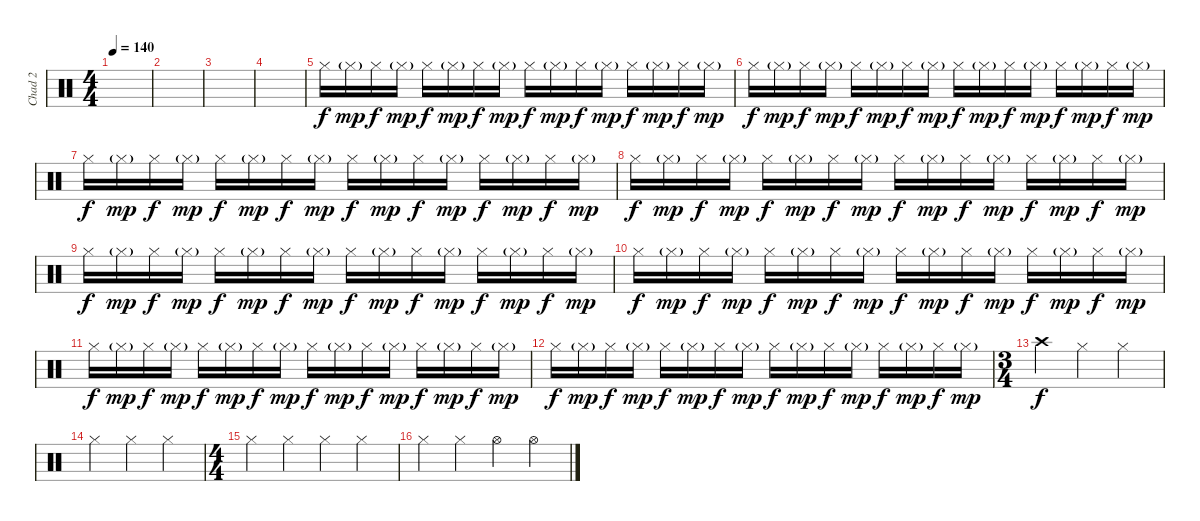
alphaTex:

\track ("Chad 2" "Chad 2") {instrument percussion}
\staff {score}
\articulation defaults
\ts (4 4)
\tempo 140
\clef neutral
\ks c
|
|
|
|
"Hi-Hat (closed)".16 "Hi-Hat (closed)"{g}.16{dy mp} "Hi-Hat (closed)".16{dy f} "Hi-Hat (closed)"{g}.16{dy mp} "Hi-Hat (closed)".16{dy f} "Hi-Hat (closed)"{g}.16{dy mp} "Hi-Hat (closed)".16{dy f} "Hi-Hat (closed)"{g}.16{dy mp} "Hi-Hat (closed)".16{dy f} "Hi-Hat (closed)"{g}.16{dy mp} "Hi-Hat (closed)".16{dy f} "Hi-Hat (closed)"{g}.16{dy mp} "Hi-Hat (closed)".16{dy f} "Hi-Hat (closed)"{g}.16{dy mp} "Hi-Hat (closed)".16{dy f} "Hi-Hat (closed)"{g}.16{dy mp} |
"Hi-Hat (closed)".16{dy f} "Hi-Hat (closed)"{g}.16{dy mp} "Hi-Hat (closed)".16{dy f} "Hi-Hat (closed)"{g}.16{dy mp} "Hi-Hat (closed)".16{dy f} "Hi-Hat (closed)"{g}.16{dy mp} "Hi-Hat (closed)".16{dy f} "Hi-Hat (closed)"{g}.16{dy mp} "Hi-Hat (closed)".16{dy f} "Hi-Hat (closed)"{g}.16{dy mp} "Hi-Hat (closed)".16{dy f} "Hi-Hat (closed)"{g}.16{dy mp} "Hi-Hat (closed)".16{dy f} "Hi-Hat (closed)"{g}.16{dy mp} "Hi-Hat (closed)".16{dy f} "Hi-Hat (closed)"{g}.16{dy mp} |
"Hi-Hat (closed)".16{dy f} "Hi-Hat (closed)"{g}.16{dy mp} "Hi-Hat (closed)".16{dy f} "Hi-Hat (closed)"{g}.16{dy mp} "Hi-Hat (closed)".16{dy f} "Hi-Hat (closed)"{g}.16{dy mp} "Hi-Hat (closed)".16{dy f} "Hi-Hat (closed)"{g}.16{dy mp} "Hi-Hat (closed)".16{dy f} "Hi-Hat (closed)"{g}.16{dy mp} "Hi-Hat (closed)".16{dy f} "Hi-Hat (closed)"{g}.16{dy mp} "Hi-Hat (closed)".16{dy f} "Hi-Hat (closed)"{g}.16{dy mp} "Hi-Hat (closed)".16{dy f} "Hi-Hat (closed)"{g}.16{dy mp} |
"Hi-Hat (closed)".16{dy f} "Hi-Hat (closed)"{g}.16{dy mp} "Hi-Hat (closed)".16{dy f} "Hi-Hat (closed)"{g}.16{dy mp} "Hi-Hat (closed)".16{dy f} "Hi-Hat (closed)"{g}.16{dy mp} "Hi-Hat (closed)".16{dy f} "Hi-Hat (closed)"{g}.16{dy mp} "Hi-Hat (closed)".16{dy f} "Hi-Hat (closed)"{g}.16{dy mp} "Hi-Hat (closed)".16{dy f} "Hi-Hat (closed)"{g}.16{dy mp} "Hi-Hat (closed)".16{dy f} "Hi-Hat (closed)"{g}.16{dy mp} "Hi-Hat (closed)".16{dy f} "Hi-Hat (closed)"{g}.16{dy mp} |
"Hi-Hat (closed)".16{dy f} "Hi-Hat (closed)"{g}.16{dy mp} "Hi-Hat (closed)".16{dy f} "Hi-Hat (closed)"{g}.16{dy mp} "Hi-Hat (closed)".16{dy f} "Hi-Hat (closed)"{g}.16{dy mp} "Hi-Hat (closed)".16{dy f} "Hi-Hat (closed)"{g}.16{dy mp} "Hi-Hat (closed)".16{dy f} "Hi-Hat (closed)"{g}.16{dy mp} "Hi-Hat (closed)".16{dy f} "Hi-Hat (closed)"{g}.16{dy mp} "Hi-Hat (closed)".16{dy f} "Hi-Hat (closed)"{g}.16{dy mp} "Hi-Hat (closed)".16{dy f} "Hi-Hat (closed)"{g}.16{dy mp} |
"Hi-Hat (closed)".16{dy f} "Hi-Hat (closed)"{g}.16{dy mp} "Hi-Hat (closed)".16{dy f} "Hi-Hat (closed)"{g}.16{dy mp} "Hi-Hat (closed)".16{dy f} "Hi-Hat (closed)"{g}.16{dy mp} "Hi-Hat (closed)".16{dy f} "Hi-Hat (closed)"{g}.16{dy mp} "Hi-Hat (closed)".16{dy f} "Hi-Hat (closed)"{g}.16{dy mp} "Hi-Hat (closed)".16{dy f} "Hi-Hat (closed)"{g}.16{dy mp} "Hi-Hat (closed)".16{dy f} "Hi-Hat (closed)"{g}.16{dy mp} "Hi-Hat (closed)".16{dy f} "Hi-Hat (closed)"{g}.16{dy mp} |
"Hi-Hat (closed)".16{dy f} "Hi-Hat (closed)"{g}.16{dy mp} "Hi-Hat (closed)".16{dy f} "Hi-Hat (closed)"{g}.16{dy mp} "Hi-Hat (closed)".16{dy f} "Hi-Hat (closed)"{g}.16{dy mp} "Hi-Hat (closed)".16{dy f} "Hi-Hat (closed)"{g}.16{dy mp} "Hi-Hat (closed)".16{dy f} "Hi-Hat (closed)"{g}.16{dy mp} "Hi-Hat (closed)".16{dy f} "Hi-Hat (closed)"{g}.16{dy mp} "Hi-Hat (closed)".16{dy f} "Hi-Hat (closed)"{g}.16{dy mp} "Hi-Hat (closed)".16{dy f} "Hi-Hat (closed)"{g}.16{dy mp} |
"Hi-Hat (closed)".16{dy f} "Hi-Hat (closed)"{g}.16{dy mp} "Hi-Hat (closed)".16{dy f} "Hi-Hat (closed)"{g}.16{dy mp} "Hi-Hat (closed)".16{dy f} "Hi-Hat (closed)"{g}.16{dy mp} "Hi-Hat (closed)".16{dy f} "Hi-Hat (closed)"{g}.16{dy mp} "Hi-Hat (closed)".16{dy f} "Hi-Hat (closed)"{g}.16{dy mp} "Hi-Hat (closed)".16{dy f} "Hi-Hat (closed)"{g}.16{dy mp} "Hi-Hat (closed)".16{dy f} "Hi-Hat (closed)"{g}.16{dy mp} "Hi-Hat (closed)".16{dy f} "Hi-Hat (closed)"{g}.16{dy mp} |
\ts (3 4)
"Crash high (hit)".4{dy f} "Hi-Hat (closed)".4 "Hi-Hat (closed)".4 |
"Hi-Hat (closed)".4 "Hi-Hat (closed)".4 "Hi-Hat (closed)".4 |
\ts (4 4)
"Hi-Hat (closed)".4 "Hi-Hat (closed)".4 "Hi-Hat (closed)".4 "Hi-Hat (closed)".4 |
"Hi-Hat (closed)".4 "Hi-Hat (closed)".4 "Hi-Hat (open)".4 "Hi-Hat (open)".4
